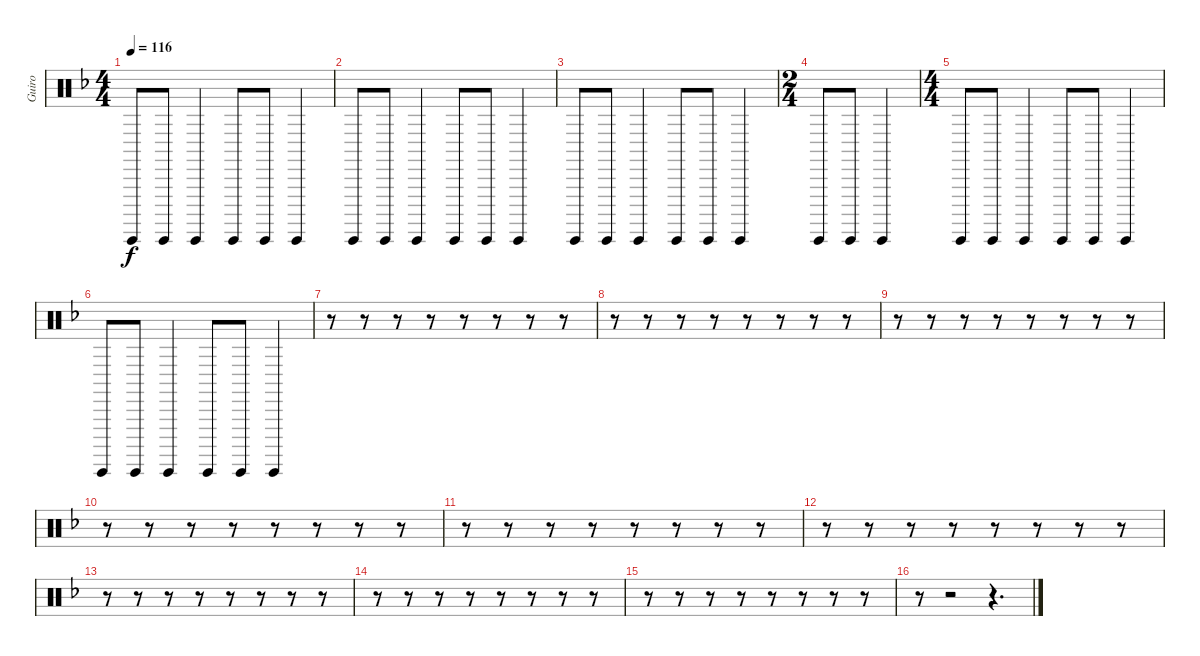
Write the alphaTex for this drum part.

\track ("Guiro" "Guiro") {instrument percussion}
\staff {score}
\articulation defaults
\ts (4 4)
\tempo 116
\clef neutral
\ks dminor "Guiro (hit)".8{dy f} "Guiro (hit)".8 "Guiro (hit)".4 "Guiro (hit)".8 "Guiro (hit)".8 "Guiro (hit)".4
|
"Guiro (hit)".8 "Guiro (hit)".8 "Guiro (hit)".4 "Guiro (hit)".8 "Guiro (hit)".8 "Guiro (hit)".4 |
"Guiro (hit)".8 "Guiro (hit)".8 "Guiro (hit)".4 "Guiro (hit)".8 "Guiro (hit)".8 "Guiro (hit)".4 |
\ts (2 4)
"Guiro (hit)".8 "Guiro (hit)".8 "Guiro (hit)".4 |
\ts (4 4)
"Guiro (hit)".8 "Guiro (hit)".8 "Guiro (hit)".4 "Guiro (hit)".8 "Guiro (hit)".8 "Guiro (hit)".4 |
"Guiro (hit)".8 "Guiro (hit)".8 "Guiro (hit)".4 "Guiro (hit)".8 "Guiro (hit)".8 "Guiro (hit)".4 |
r.8 r.8 r.8 r.8 r.8 r.8 r.8 r.8 |
r.8 r.8 r.8 r.8 r.8 r.8 r.8 r.8 |
r.8 r.8 r.8 r.8 r.8 r.8 r.8 r.8 |
r.8 r.8 r.8 r.8 r.8 r.8 r.8 r.8 |
r.8 r.8 r.8 r.8 r.8 r.8 r.8 r.8 |
r.8 r.8 r.8 r.8 r.8 r.8 r.8 r.8 |
r.8 r.8 r.8 r.8 r.8 r.8 r.8 r.8 |
r.8 r.8 r.8 r.8 r.8 r.8 r.8 r.8 |
r.8 r.8 r.8 r.8 r.8 r.8 r.8 r.8 |
r.8 r.2 r.4{d}
